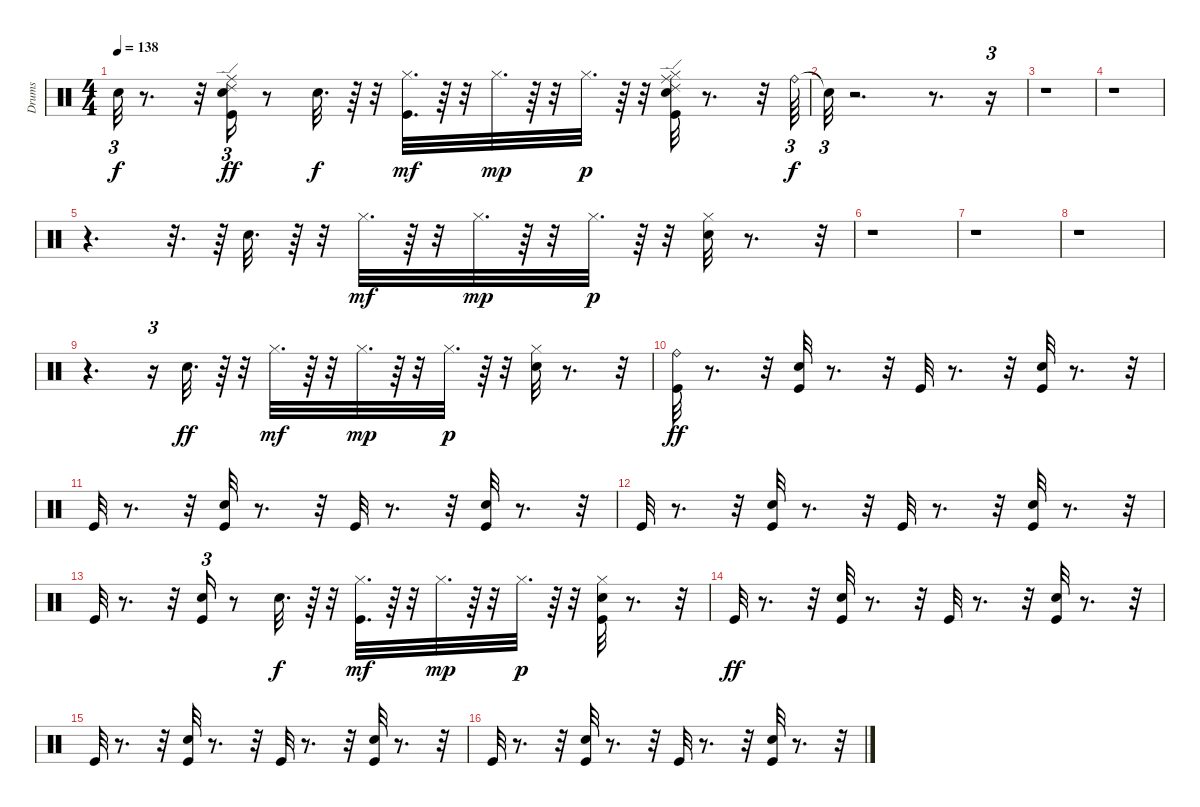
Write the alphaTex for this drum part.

\track ("Drums" "Drums") {instrument percussion}
\staff {score}
\articulation defaults
\ts (4 4)
\tempo 138
\clef neutral
\ks c "Snare (hit)"{t}.32{tu (3 2) dy f}
r.8{d} r.32 ("Ride (middle)" "Ride (edge) 2" "Kick (hit)" "Hand Clap (hit)").16{tu (3 2) dy ff} r.8 "Hand Clap (hit)".32{d dy f} r.64 r.32 ("Kick (hit)" "Hi-Hat (closed)").32{d dy mf} r.64 r.32 "Hi-Hat (closed)".32{d dy mp} r.64 r.32 "Hi-Hat (closed)".32{d dy p} r.64 r.32 ("Ride (middle)" "Ride (edge) 2" "Hand Clap (hit)" "Kick (hit)" "Hi-Hat (closed)").32 r.8{d} r.32 "Ride (bell)".64{tu (3 2) dy f} |
"Snare (hit)"{t}.32{tu (3 2)} r.2{d} r.8{d} r.16{tu (3 2)} |
r.1 |
r.1 |
r.4{d} r.32{d} r.64 "Hand Clap (hit)".32{d} r.64 r.32 "Hi-Hat (closed)".32{d dy mf} r.64 r.32 "Hi-Hat (closed)".32{d dy mp} r.64 r.32 "Hi-Hat (closed)".32{d dy p} r.64 r.32 ("Hand Clap (hit)" "Hi-Hat (closed)").32 r.8{d} r.32{tu (3 2)} |
r.1 |
r.1 |
r.1 |
r.4{d} r.16{tu (3 2)} "Hand Clap (hit)".32{d dy ff} r.64 r.32 "Hi-Hat (closed)".32{d dy mf} r.64 r.32 "Hi-Hat (closed)".32{d dy mp} r.64 r.32 "Hi-Hat (closed)".32{d dy p} r.64 r.32 ("Hand Clap (hit)" "Hi-Hat (closed)").32 r.8{d} r.32 |
("Ride (bell)" "Kick (hit)").32{dy ff} r.8{d} r.32 ("Hand Clap (hit)" "Kick (hit)").32 r.8{d} r.32 "Kick (hit)".32 r.8{d} r.32 ("Hand Clap (hit)" "Kick (hit)").32 r.8{d} r.32 |
"Kick (hit)".32 r.8{d} r.32 ("Kick (hit)" "Hand Clap (hit)").32 r.8{d} r.32 "Kick (hit)".32 r.8{d} r.32 ("Kick (hit)" "Hand Clap (hit)").32 r.8{d} r.32 |
"Kick (hit)".32 r.8{d} r.32 ("Kick (hit)" "Hand Clap (hit)").32 r.8{d} r.32 "Kick (hit)".32 r.8{d} r.32 ("Hand Clap (hit)" "Kick (hit)").32 r.8{d} r.32 |
"Kick (hit)".32 r.8{d} r.32 ("Kick (hit)" "Hand Clap (hit)").16{tu (3 2)} r.8 "Hand Clap (hit)".32{d dy f} r.64 r.32 ("Kick (hit)" "Hi-Hat (closed)").32{d dy mf} r.64 r.32 "Hi-Hat (closed)".32{d dy mp} r.64 r.32 "Hi-Hat (closed)".32{d dy p} r.64 r.32 ("Hand Clap (hit)" "Kick (hit)" "Hi-Hat (closed)").32 r.8{d} r.32 |
"Kick (hit)".32{dy ff} r.8{d} r.32 ("Hand Clap (hit)" "Kick (hit)").32 r.8{d} r.32 "Kick (hit)".32 r.8{d} r.32 ("Hand Clap (hit)" "Kick (hit)").32 r.8{d} r.32 |
"Kick (hit)".32 r.8{d} r.32 ("Kick (hit)" "Hand Clap (hit)").32 r.8{d} r.32 "Kick (hit)".32 r.8{d} r.32 ("Kick (hit)" "Hand Clap (hit)").32 r.8{d} r.32 |
"Kick (hit)".32 r.8{d} r.32 ("Kick (hit)" "Hand Clap (hit)").32 r.8{d} r.32 "Kick (hit)".32 r.8{d} r.32 ("Hand Clap (hit)" "Kick (hit)").32 r.8{d} r.32
